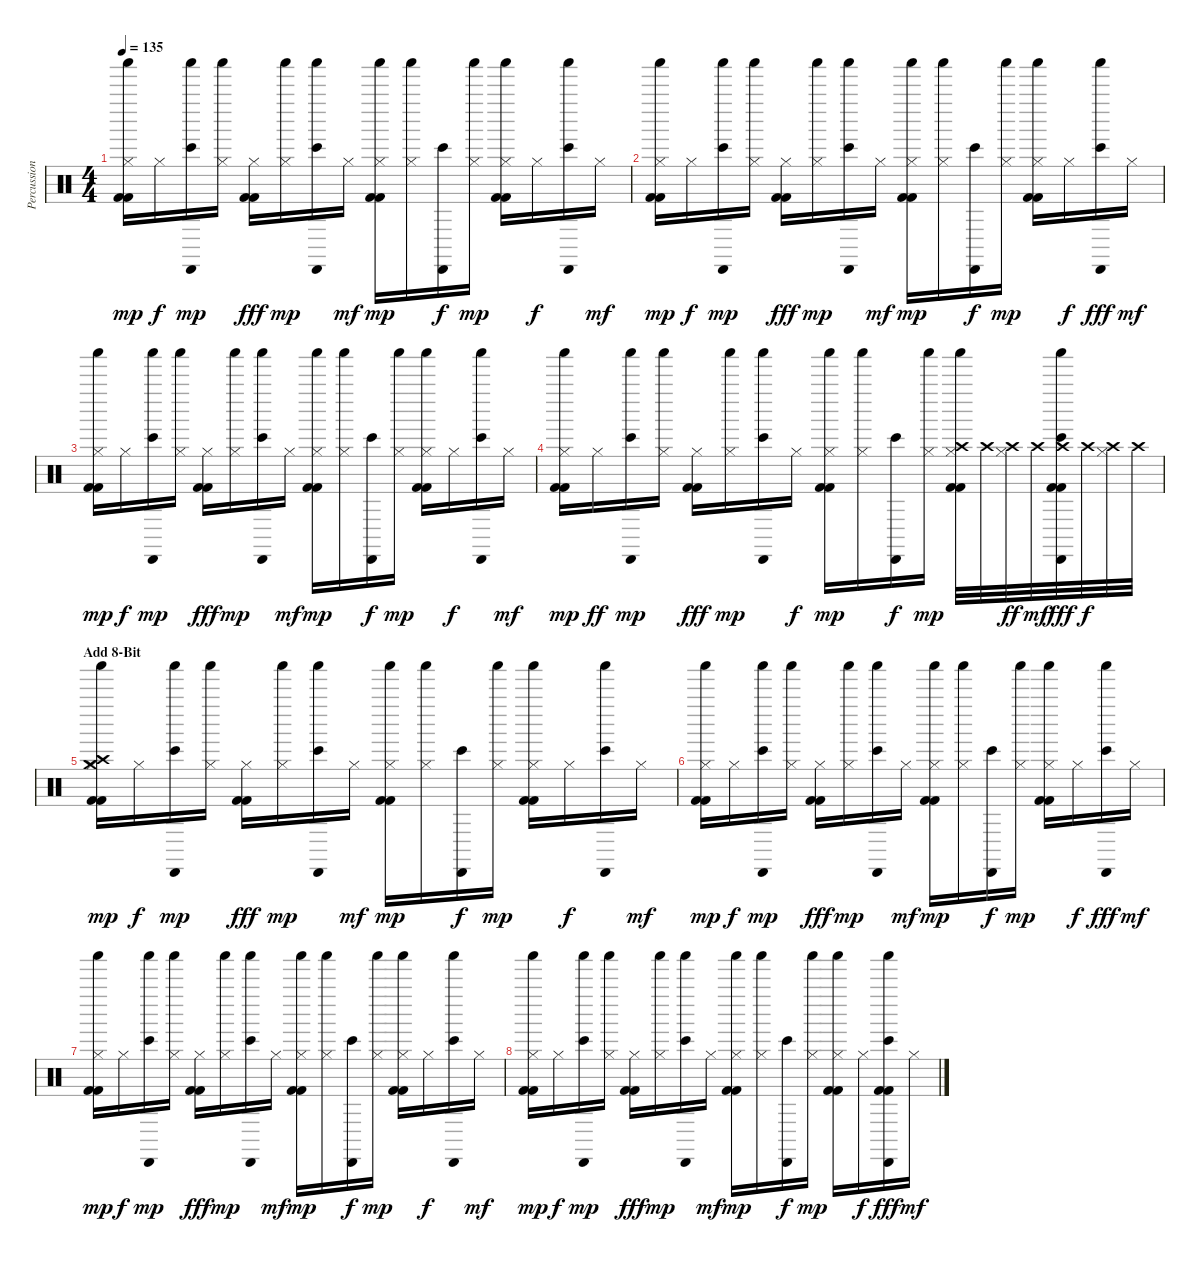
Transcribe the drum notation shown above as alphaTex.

\track ("Percussion" "Percussion") {instrument percussion}
\staff {score}
\articulation defaults
\ts (4 4)
\tempo 135
\clef neutral
\ks c
("Hi-Hat (closed)" "Kick (hit) 2" "Kick (hit) 2" "Shaker (hit)").16{dy mp} "Hi-Hat (closed)".16{dy f} ("Cabasa (hit)" "Bongo High (hit)" "Shaker (hit)").16{dy mp} ("Hi-Hat (closed)" "Shaker (hit)").16 ("Hi-Hat (closed)" "Kick (hit) 2" "Kick (hit) 2").16{dy fff} ("Hi-Hat (closed)" "Shaker (hit)").16{dy mp} ("Cabasa (hit)" "Bongo High (hit)" "Shaker (hit)").16 "Hi-Hat (closed)".16{dy mf} ("Hi-Hat (closed)" "Kick (hit) 2" "Kick (hit) 2" "Shaker (hit)").16{dy mp} ("Hi-Hat (closed)" "Shaker (hit)").16 ("Cabasa (hit)" "Bongo High (hit)").16{dy f} ("Hi-Hat (closed)" "Shaker (hit)").16{dy mp} ("Hi-Hat (closed)" "Kick (hit) 2" "Kick (hit) 2" "Shaker (hit)").16 "Hi-Hat (closed)".16{dy f} ("Cabasa (hit)" "Bongo High (hit)" "Shaker (hit)").16 "Hi-Hat (closed)".16{dy mf} |
("Hi-Hat (closed)" "Kick (hit) 2" "Kick (hit) 2" "Shaker (hit)").16{dy mp} "Hi-Hat (closed)".16{dy f} ("Cabasa (hit)" "Bongo High (hit)" "Shaker (hit)").16{dy mp} ("Hi-Hat (closed)" "Shaker (hit)").16 ("Hi-Hat (closed)" "Kick (hit) 2" "Kick (hit) 2").16{dy fff} ("Hi-Hat (closed)" "Shaker (hit)").16{dy mp} ("Cabasa (hit)" "Bongo High (hit)" "Shaker (hit)").16 "Hi-Hat (closed)".16{dy mf} ("Hi-Hat (closed)" "Kick (hit) 2" "Kick (hit) 2" "Shaker (hit)").16{dy mp} ("Hi-Hat (closed)" "Shaker (hit)").16 ("Cabasa (hit)" "Bongo High (hit)").16{dy f} ("Hi-Hat (closed)" "Shaker (hit)").16{dy mp} ("Hi-Hat (closed)" "Kick (hit) 2" "Kick (hit) 2" "Shaker (hit)").16 "Hi-Hat (closed)".16{dy f} ("Cabasa (hit)" "Bongo High (hit)" "Shaker (hit)").16{dy fff} "Hi-Hat (closed)".16{dy mf} |
("Hi-Hat (closed)" "Kick (hit) 2" "Kick (hit) 2" "Shaker (hit)").16{dy mp} "Hi-Hat (closed)".16{dy f} ("Cabasa (hit)" "Bongo High (hit)" "Shaker (hit)").16{dy mp} ("Hi-Hat (closed)" "Shaker (hit)").16 ("Hi-Hat (closed)" "Kick (hit) 2" "Kick (hit) 2").16{dy fff} ("Hi-Hat (closed)" "Shaker (hit)").16{dy mp} ("Cabasa (hit)" "Bongo High (hit)" "Shaker (hit)").16 "Hi-Hat (closed)".16{dy mf} ("Hi-Hat (closed)" "Kick (hit) 2" "Kick (hit) 2" "Shaker (hit)").16{dy mp} ("Hi-Hat (closed)" "Shaker (hit)").16 ("Cabasa (hit)" "Bongo High (hit)").16{dy f} ("Hi-Hat (closed)" "Shaker (hit)").16{dy mp} ("Hi-Hat (closed)" "Kick (hit) 2" "Kick (hit) 2" "Shaker (hit)").16 "Hi-Hat (closed)".16{dy f} ("Cabasa (hit)" "Bongo High (hit)" "Shaker (hit)").16 "Hi-Hat (closed)".16{dy mf} |
("Hi-Hat (closed)" "Kick (hit) 2" "Kick (hit) 2" "Shaker (hit)").16{dy mp} "Hi-Hat (closed)".16{dy ff} ("Cabasa (hit)" "Bongo High (hit)" "Shaker (hit)").16{dy mp} ("Hi-Hat (closed)" "Shaker (hit)").16 ("Hi-Hat (closed)" "Kick (hit) 2" "Kick (hit) 2").16{dy fff} ("Hi-Hat (closed)" "Shaker (hit)").16{dy mp} ("Cabasa (hit)" "Bongo High (hit)" "Shaker (hit)").16 "Hi-Hat (closed)".16{dy f} ("Hi-Hat (closed)" "Kick (hit) 2" "Kick (hit) 2" "Shaker (hit)").16{dy mp} ("Hi-Hat (closed)" "Shaker (hit)").16 ("Cabasa (hit)" "Bongo High (hit)").16{dy f} ("Hi-Hat (closed)" "Shaker (hit)").16{dy mp} ("Crash high (hit)" "Hi-Hat (closed)" "Kick (hit) 2" "Kick (hit) 2" "Shaker (hit)").32 "Crash high (hit)".32 ("Crash high (hit)" "Hi-Hat (closed)").32{dy ff} "Crash high (hit)".32{dy mf} ("Crash high (hit)" "Cabasa (hit)" "Bongo High (hit)" "Kick (hit) 2" "Kick (hit) 2" "Shaker (hit)").32{dy fff} "Crash high (hit)".32{dy f} ("Crash high (hit)" "Hi-Hat (closed)").32 "Crash high (hit)".32 |
\section ("" "Add 8-Bit")
("Crash medium (hit)" "Hi-Hat (closed)" "Crash high (hit)" "Kick (hit) 2" "Kick (hit) 2" "Shaker (hit)").16{dy mp} "Hi-Hat (closed)".16{dy f} ("Cabasa (hit)" "Bongo High (hit)" "Shaker (hit)").16{dy mp} ("Hi-Hat (closed)" "Shaker (hit)").16 ("Hi-Hat (closed)" "Kick (hit) 2" "Kick (hit) 2").16{dy fff} ("Hi-Hat (closed)" "Shaker (hit)").16{dy mp} ("Cabasa (hit)" "Bongo High (hit)" "Shaker (hit)").16 "Hi-Hat (closed)".16{dy mf} ("Hi-Hat (closed)" "Kick (hit) 2" "Kick (hit) 2" "Shaker (hit)").16{dy mp} ("Hi-Hat (closed)" "Shaker (hit)").16 ("Cabasa (hit)" "Bongo High (hit)").16{dy f} ("Hi-Hat (closed)" "Shaker (hit)").16{dy mp} ("Hi-Hat (closed)" "Kick (hit) 2" "Kick (hit) 2" "Shaker (hit)").16 "Hi-Hat (closed)".16{dy f} ("Cabasa (hit)" "Bongo High (hit)" "Shaker (hit)").16 "Hi-Hat (closed)".16{dy mf} |
("Hi-Hat (closed)" "Kick (hit) 2" "Kick (hit) 2" "Shaker (hit)").16{dy mp} "Hi-Hat (closed)".16{dy f} ("Cabasa (hit)" "Bongo High (hit)" "Shaker (hit)").16{dy mp} ("Hi-Hat (closed)" "Shaker (hit)").16 ("Hi-Hat (closed)" "Kick (hit) 2" "Kick (hit) 2").16{dy fff} ("Hi-Hat (closed)" "Shaker (hit)").16{dy mp} ("Cabasa (hit)" "Bongo High (hit)" "Shaker (hit)").16 "Hi-Hat (closed)".16{dy mf} ("Hi-Hat (closed)" "Kick (hit) 2" "Kick (hit) 2" "Shaker (hit)").16{dy mp} ("Hi-Hat (closed)" "Shaker (hit)").16 ("Cabasa (hit)" "Bongo High (hit)").16{dy f} ("Hi-Hat (closed)" "Shaker (hit)").16{dy mp} ("Hi-Hat (closed)" "Kick (hit) 2" "Kick (hit) 2" "Shaker (hit)").16 "Hi-Hat (closed)".16{dy f} ("Cabasa (hit)" "Bongo High (hit)" "Shaker (hit)").16{dy fff} "Hi-Hat (closed)".16{dy mf} |
("Hi-Hat (closed)" "Kick (hit) 2" "Kick (hit) 2" "Shaker (hit)").16{dy mp} "Hi-Hat (closed)".16{dy f} ("Cabasa (hit)" "Bongo High (hit)" "Shaker (hit)").16{dy mp} ("Hi-Hat (closed)" "Shaker (hit)").16 ("Hi-Hat (closed)" "Kick (hit) 2" "Kick (hit) 2").16{dy fff} ("Hi-Hat (closed)" "Shaker (hit)").16{dy mp} ("Cabasa (hit)" "Bongo High (hit)" "Shaker (hit)").16 "Hi-Hat (closed)".16{dy mf} ("Hi-Hat (closed)" "Kick (hit) 2" "Kick (hit) 2" "Shaker (hit)").16{dy mp} ("Hi-Hat (closed)" "Shaker (hit)").16 ("Cabasa (hit)" "Bongo High (hit)").16{dy f} ("Hi-Hat (closed)" "Shaker (hit)").16{dy mp} ("Hi-Hat (closed)" "Kick (hit) 2" "Kick (hit) 2" "Shaker (hit)").16 "Hi-Hat (closed)".16{dy f} ("Cabasa (hit)" "Bongo High (hit)" "Shaker (hit)").16 "Hi-Hat (closed)".16{dy mf} |
("Hi-Hat (closed)" "Kick (hit) 2" "Kick (hit) 2" "Shaker (hit)").16{dy mp} "Hi-Hat (closed)".16{dy f} ("Cabasa (hit)" "Bongo High (hit)" "Shaker (hit)").16{dy mp} ("Hi-Hat (closed)" "Shaker (hit)").16 ("Hi-Hat (closed)" "Kick (hit) 2" "Kick (hit) 2").16{dy fff} ("Hi-Hat (closed)" "Shaker (hit)").16{dy mp} ("Cabasa (hit)" "Bongo High (hit)" "Shaker (hit)").16 "Hi-Hat (closed)".16{dy mf} ("Hi-Hat (closed)" "Kick (hit) 2" "Kick (hit) 2" "Shaker (hit)").16{dy mp} ("Hi-Hat (closed)" "Shaker (hit)").16 ("Cabasa (hit)" "Bongo High (hit)").16{dy f} ("Hi-Hat (closed)" "Shaker (hit)").16{dy mp} ("Hi-Hat (closed)" "Kick (hit) 2" "Kick (hit) 2" "Shaker (hit)").16 "Hi-Hat (closed)".16{dy f} ("Cabasa (hit)" "Bongo High (hit)" "Kick (hit) 2" "Kick (hit) 2" "Shaker (hit)").16{dy fff} "Hi-Hat (closed)".16{dy mf}
